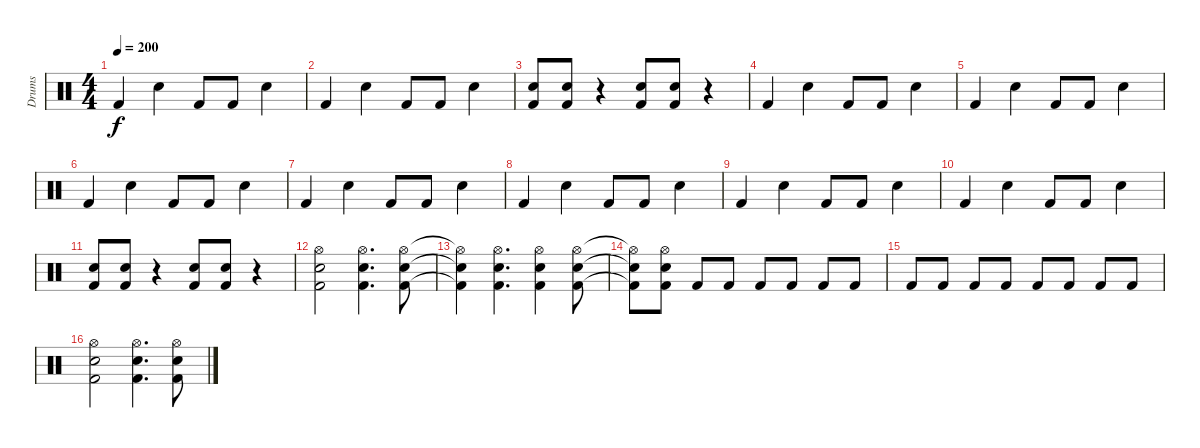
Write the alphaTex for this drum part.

\track ("Drums" "Drums") {instrument percussion}
\staff {score}
\articulation defaults
\ts (4 4)
\tempo 200
\clef neutral
\ks c "Kick (hit) 2".4{dy f} "Snare (hit) 2".4 "Kick (hit) 2".8 "Kick (hit) 2".8 "Snare (hit) 2".4
|
"Kick (hit) 2".4 "Snare (hit) 2".4 "Kick (hit) 2".8 "Kick (hit) 2".8 "Snare (hit) 2".4 |
("Kick (hit) 2" "Snare (hit) 2").8 ("Kick (hit) 2" "Snare (hit) 2").8 r.4 ("Kick (hit) 2" "Snare (hit) 2").8 ("Kick (hit) 2" "Snare (hit) 2").8 r.4 |
"Kick (hit) 2".4 "Snare (hit) 2".4 "Kick (hit) 2".8 "Kick (hit) 2".8 "Snare (hit) 2".4 |
"Kick (hit) 2".4 "Snare (hit) 2".4 "Kick (hit) 2".8 "Kick (hit) 2".8 "Snare (hit) 2".4 |
"Kick (hit) 2".4 "Snare (hit) 2".4 "Kick (hit) 2".8 "Kick (hit) 2".8 "Snare (hit) 2".4 |
"Kick (hit) 2".4 "Snare (hit) 2".4 "Kick (hit) 2".8 "Kick (hit) 2".8 "Snare (hit) 2".4 |
"Kick (hit) 2".4 "Snare (hit) 2".4 "Kick (hit) 2".8 "Kick (hit) 2".8 "Snare (hit) 2".4 |
"Kick (hit) 2".4 "Snare (hit) 2".4 "Kick (hit) 2".8 "Kick (hit) 2".8 "Snare (hit) 2".4 |
"Kick (hit) 2".4 "Snare (hit) 2".4 "Kick (hit) 2".8 "Kick (hit) 2".8 "Snare (hit) 2".4 |
("Kick (hit) 2" "Snare (hit) 2").8 ("Kick (hit) 2" "Snare (hit) 2").8 r.4 ("Kick (hit) 2" "Snare (hit) 2").8 ("Kick (hit) 2" "Snare (hit) 2").8 r.4 |
("Kick (hit) 2" "Hi-Hat (open)" "Snare (hit) 2").2 ("Kick (hit) 2" "Hi-Hat (open)" "Snare (hit) 2").4{d} ("Kick (hit) 2" "Hi-Hat (open)" "Snare (hit) 2").8 |
("Kick (hit) 2"{t} "Hi-Hat (open)"{t} "Snare (hit) 2"{t}).4 ("Kick (hit) 2" "Hi-Hat (open)" "Snare (hit) 2").4{d} ("Kick (hit) 2" "Hi-Hat (open)" "Snare (hit) 2").4 ("Kick (hit) 2" "Hi-Hat (open)" "Snare (hit) 2").8 |
("Kick (hit) 2"{t} "Hi-Hat (open)"{t} "Snare (hit) 2"{t}).8 ("Kick (hit) 2" "Hi-Hat (open)" "Snare (hit) 2").8 "Kick (hit) 2".8 "Kick (hit) 2".8 "Kick (hit) 2".8 "Kick (hit) 2".8 "Kick (hit) 2".8 "Kick (hit) 2".8 |
"Kick (hit) 2".8 "Kick (hit) 2".8 "Kick (hit) 2".8 "Kick (hit) 2".8 "Kick (hit) 2".8 "Kick (hit) 2".8 "Kick (hit) 2".8 "Kick (hit) 2".8 |
("Kick (hit) 2" "Hi-Hat (open)" "Snare (hit) 2").2 ("Kick (hit) 2" "Hi-Hat (open)" "Snare (hit) 2").4{d} ("Kick (hit) 2" "Hi-Hat (open)" "Snare (hit) 2").8
